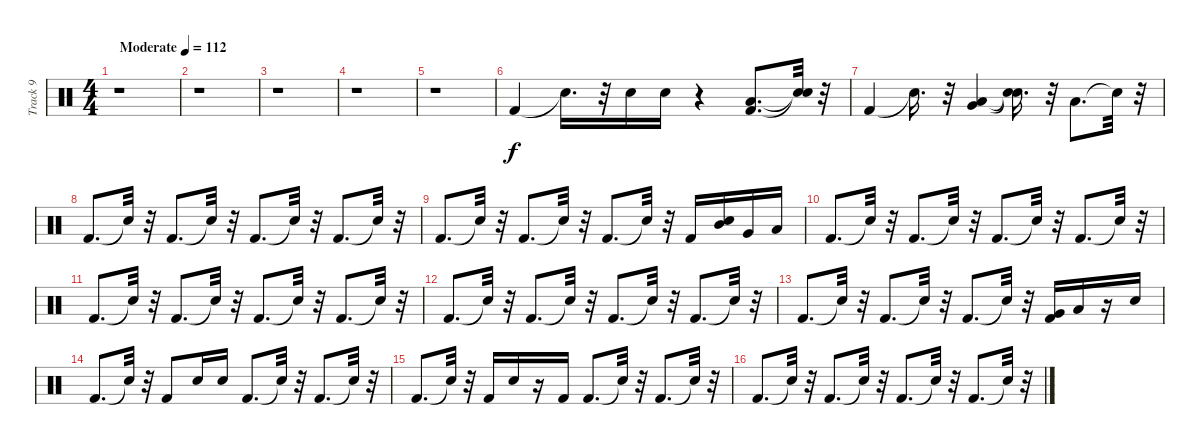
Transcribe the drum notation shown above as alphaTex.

\track ("Track 9" "Track 9") {instrument percussion}
\staff {score}
\articulation defaults
\ts (4 4)
\tempo (112 "Moderate")
\clef neutral
\ks c
r.1{dy f} |
r.1 |
r.1 |
r.1 |
r.1 |
"Kick (hit) 2".4 "Snare (hit)"{t}.16{d} r.32 "Snare (hit) 2".16 "Snare (hit) 2".16 r.4 ("Kick (hit) 2" "Low Floor Tom (hit)").8{d} ("Snare (hit)"{t} "Snare (hit)"{t}).32 r.32 |
"Kick (hit) 2".4 "Snare (hit)"{t}.16{d} r.32 ("Very Low Tom (hit)" "Low Tom (hit)").4 ("Snare (hit)"{t} "Snare (hit)"{t}).16{d} r.32 "Low Floor Tom (hit)".8{d} "Snare (hit)"{t}.32 r.32 |
"Kick (hit) 2".8{d} "Snare (hit)"{t}.32 r.32 "Kick (hit) 2".8{d} "Snare (hit)"{t}.32 r.32 "Kick (hit) 2".8{d} "Snare (hit)"{t}.32 r.32 "Kick (hit) 2".8{d} "Snare (hit)"{t}.32 r.32 |
"Kick (hit) 2".8{d} "Snare (hit)"{t}.32 r.32 "Kick (hit) 2".8{d} "Snare (hit)"{t}.32 r.32 "Kick (hit) 2".8{d} "Snare (hit)"{t}.32 r.32 "Kick (hit) 2".16 ("Snare (hit) 2" "Mid Tom (hit)").16 "Very Low Tom (hit)".16 "Low Floor Tom (hit)".16 |
"Kick (hit) 2".8{d} "Snare (hit)"{t}.32 r.32 "Kick (hit) 2".8{d} "Snare (hit)"{t}.32 r.32 "Kick (hit) 2".8{d} "Snare (hit)"{t}.32 r.32 "Kick (hit) 2".8{d} "Snare (hit)"{t}.32 r.32 |
"Kick (hit) 2".8{d} "Snare (hit)"{t}.32 r.32 "Kick (hit) 2".8{d} "Snare (hit)"{t}.32 r.32 "Kick (hit) 2".8{d} "Snare (hit)"{t}.32 r.32 "Kick (hit) 2".8{d} "Snare (hit)"{t}.32 r.32 |
"Kick (hit) 2".8{d} "Snare (hit)"{t}.32 r.32 "Kick (hit) 2".8{d} "Snare (hit)"{t}.32 r.32 "Kick (hit) 2".8{d} "Snare (hit)"{t}.32 r.32 "Kick (hit) 2".8{d} "Snare (hit)"{t}.32 r.32 |
"Kick (hit) 2".8{d} "Snare (hit)"{t}.32 r.32 "Kick (hit) 2".8{d} "Snare (hit)"{t}.32 r.32 "Kick (hit) 2".8{d} "Snare (hit)"{t}.32 r.32 ("Kick (hit) 2" "Very Low Tom (hit)").16 "Low Floor Tom (hit)".16 r.16 "Snare (hit) 2".16 |
"Kick (hit) 2".8{d} "Snare (hit)"{t}.32 r.32 "Kick (hit) 2".8 "Snare (hit) 2".16 "Snare (hit) 2".16 "Kick (hit) 2".8{d} "Snare (hit)"{t}.32 r.32 "Kick (hit) 2".8{d} "Snare (hit)"{t}.32 r.32 |
"Kick (hit) 2".8{d} "Snare (hit)"{t}.32 r.32 "Kick (hit) 2".16 "Snare (hit) 2".16 r.16 "Kick (hit) 2".16 "Kick (hit) 2".8{d} "Snare (hit)"{t}.32 r.32 "Kick (hit) 2".8{d} "Snare (hit)"{t}.32 r.32 |
"Kick (hit) 2".8{d} "Snare (hit)"{t}.32 r.32 "Kick (hit) 2".8{d} "Snare (hit)"{t}.32 r.32 "Kick (hit) 2".8{d} "Snare (hit)"{t}.32 r.32 "Kick (hit) 2".8{d} "Snare (hit)"{t}.32 r.32
